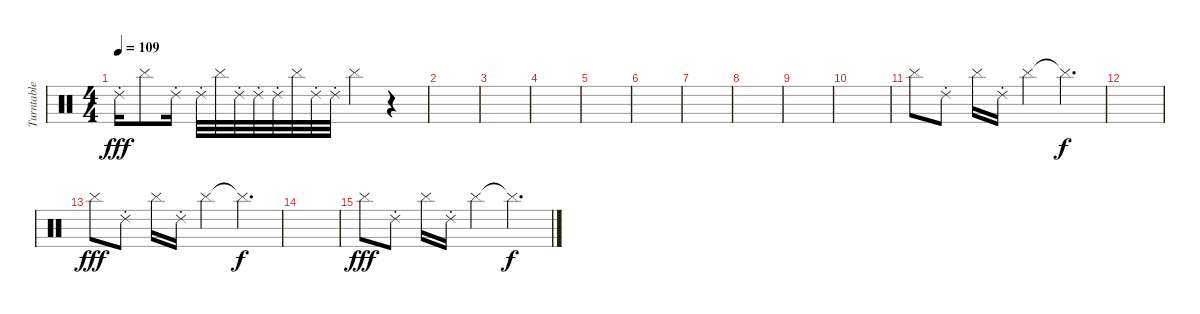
\track ("Turntable" "Turntable") {instrument percussion}
\staff {score}
\articulation defaults
\ts (4 4)
\tempo 109
\clef neutral
\ks c "Ride (choke) 2".16{dy fff volume 9} "Cymbal (hit)".8 "Ride (choke) 2".16 "Ride (choke) 2".32 "Cymbal (hit)".32 "Ride (choke) 2".32 "Ride (choke) 2".32 "Ride (choke) 2".32 "Cymbal (hit)".32 "Ride (choke) 2".32 "Ride (choke) 2".32 "Cymbal (hit)".4
r.4 |
|
|
|
|
|
|
|
|
|
"Cymbal (hit)".8{volume 8} "Ride (choke) 2".8 "Cymbal (hit)".16 "Ride (choke) 2".16 "Cymbal (hit)".4 "Cymbal (hit)"{t}.4{d dy f} |
|
"Cymbal (hit)".8{dy fff volume 8} "Ride (choke) 2".8 "Cymbal (hit)".16 "Ride (choke) 2".16 "Cymbal (hit)".4 "Cymbal (hit)"{t}.4{d dy f} |
|
"Cymbal (hit)".8{dy fff volume 8} "Ride (choke) 2".8 "Cymbal (hit)".16 "Ride (choke) 2".16 "Cymbal (hit)".4 "Cymbal (hit)"{t}.4{d dy f}
